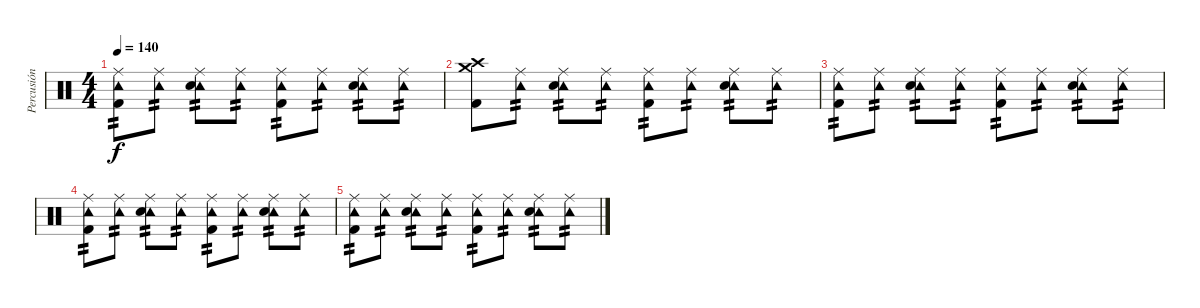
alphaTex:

\track ("Percusión" "Percusión") {instrument percussion}
\staff {score}
\articulation defaults
\ts (4 4)
\tempo 140
\clef neutral
\ks c
("Tambourine (hit)" "Ride (middle)" "Kick (hit) 2").8{tp 2 dy f} ("Tambourine (hit)" "Ride (middle)").8{tp 2} ("Tambourine (hit)" "Ride (middle)" "Electric Snare (hit)").8{tp 2} ("Tambourine (hit)" "Ride (middle)").8{tp 2} ("Tambourine (hit)" "Ride (middle)" "Kick (hit) 2").8{tp 2} ("Tambourine (hit)" "Ride (middle)").8{tp 2} ("Tambourine (hit)" "Ride (middle)" "Electric Snare (hit)").8{tp 2} ("Tambourine (hit)" "Ride (middle)").8{tp 2} |
("Crash high (hit)" "Crash medium (hit)" "Kick (hit) 2").8 ("Tambourine (hit)" "Ride (middle)").8{tp 2} ("Tambourine (hit)" "Ride (middle)" "Electric Snare (hit)").8{tp 2} ("Tambourine (hit)" "Ride (middle)").8{tp 2} ("Tambourine (hit)" "Ride (middle)" "Kick (hit) 2").8{tp 2} ("Tambourine (hit)" "Ride (middle)").8{tp 2} ("Tambourine (hit)" "Ride (middle)" "Electric Snare (hit)").8{tp 2} ("Tambourine (hit)" "Ride (middle)").8{tp 2} |
("Tambourine (hit)" "Ride (middle)" "Kick (hit) 2").8{tp 2} ("Tambourine (hit)" "Ride (middle)").8{tp 2} ("Tambourine (hit)" "Ride (middle)" "Electric Snare (hit)").8{tp 2} ("Tambourine (hit)" "Ride (middle)").8{tp 2} ("Tambourine (hit)" "Ride (middle)" "Kick (hit) 2").8{tp 2} ("Tambourine (hit)" "Ride (middle)").8{tp 2} ("Tambourine (hit)" "Ride (middle)" "Electric Snare (hit)").8{tp 2} ("Tambourine (hit)" "Ride (middle)").8{tp 2} |
("Tambourine (hit)" "Ride (middle)" "Kick (hit) 2").8{tp 2} ("Tambourine (hit)" "Ride (middle)").8{tp 2} ("Tambourine (hit)" "Ride (middle)" "Electric Snare (hit)").8{tp 2} ("Tambourine (hit)" "Ride (middle)").8{tp 2} ("Tambourine (hit)" "Ride (middle)" "Kick (hit) 2").8{tp 2} ("Tambourine (hit)" "Ride (middle)").8{tp 2} ("Tambourine (hit)" "Ride (middle)" "Electric Snare (hit)").8{tp 2} ("Tambourine (hit)" "Ride (middle)").8{tp 2} |
("Tambourine (hit)" "Ride (middle)" "Kick (hit) 2").8{tp 2} ("Tambourine (hit)" "Ride (middle)").8{tp 2} ("Tambourine (hit)" "Ride (middle)" "Electric Snare (hit)").8{tp 2} ("Tambourine (hit)" "Ride (middle)").8{tp 2} ("Tambourine (hit)" "Ride (middle)" "Kick (hit) 2").8{tp 2} ("Tambourine (hit)" "Ride (middle)").8{tp 2} ("Tambourine (hit)" "Ride (middle)" "Electric Snare (hit)").8{tp 2} ("Tambourine (hit)" "Ride (middle)").8{tp 2}
